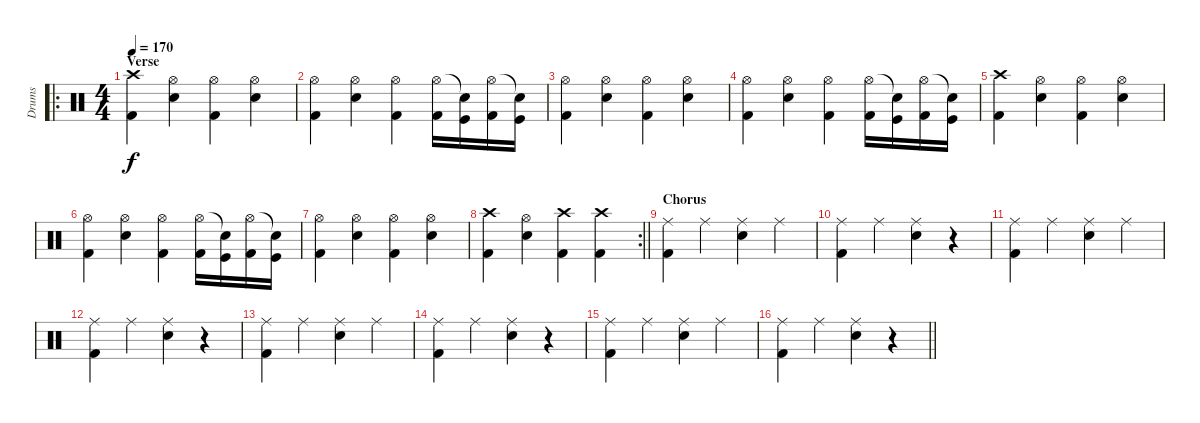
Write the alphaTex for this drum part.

\track ("Drums" "Drums") {instrument percussion}
\staff {score}
\articulation defaults
\ro
\ts (4 4)
\section ("" "Verse")
\tempo 170
\clef neutral
\ks c
("Crash high (hit)" "Kick (hit) 2").4{dy f} ("Hi-Hat (open)" "Electric Snare (hit)").4 ("Hi-Hat (open)" "Kick (hit) 2").4 ("Hi-Hat (open)" "Electric Snare (hit)").4 |
("Hi-Hat (open)" "Kick (hit) 2").4 ("Hi-Hat (open)" "Electric Snare (hit)").4 ("Hi-Hat (open)" "Kick (hit) 2").4 ("Hi-Hat (open)" "Kick (hit) 2").16 ("Snare (hit)"{t} "Kick (hit)").16 ("Hi-Hat (open)" "Kick (hit) 2").16 ("Snare (hit)"{t} "Kick (hit)").16 |
("Hi-Hat (open)" "Kick (hit) 2").4 ("Hi-Hat (open)" "Electric Snare (hit)").4 ("Hi-Hat (open)" "Kick (hit) 2").4 ("Hi-Hat (open)" "Electric Snare (hit)").4 |
("Hi-Hat (open)" "Kick (hit) 2").4 ("Hi-Hat (open)" "Electric Snare (hit)").4 ("Hi-Hat (open)" "Kick (hit) 2").4 ("Hi-Hat (open)" "Kick (hit) 2").16 ("Snare (hit)"{t} "Kick (hit)").16 ("Hi-Hat (open)" "Kick (hit) 2").16 ("Snare (hit)"{t} "Kick (hit)").16 |
("Crash high (hit)" "Kick (hit) 2").4 ("Hi-Hat (open)" "Electric Snare (hit)").4 ("Hi-Hat (open)" "Kick (hit) 2").4 ("Hi-Hat (open)" "Electric Snare (hit)").4 |
("Hi-Hat (open)" "Kick (hit) 2").4 ("Hi-Hat (open)" "Electric Snare (hit)").4 ("Hi-Hat (open)" "Kick (hit) 2").4 ("Hi-Hat (open)" "Kick (hit) 2").16 ("Snare (hit)"{t} "Kick (hit)").16 ("Hi-Hat (open)" "Kick (hit) 2").16 ("Snare (hit)"{t} "Kick (hit)").16 |
("Hi-Hat (open)" "Kick (hit) 2").4 ("Hi-Hat (open)" "Electric Snare (hit)").4 ("Hi-Hat (open)" "Kick (hit) 2").4 ("Hi-Hat (open)" "Electric Snare (hit)").4 |
\rc 2
\barLineRight lightlight
("Crash high (hit)" "Kick (hit) 2").4 ("Hi-Hat (open)" "Electric Snare (hit)").4 ("Crash high (hit)" "Kick (hit) 2").4 ("Crash high (hit)" "Kick (hit) 2").4 |
\section ("" "Chorus")
("Ride (middle)" "Kick (hit) 2").4 "Ride (middle)".4 ("Ride (middle)" "Electric Snare (hit)").4 "Ride (middle)".4 |
("Ride (middle)" "Kick (hit) 2").4 "Ride (middle)".4 ("Ride (middle)" "Electric Snare (hit)").4 r.4 |
("Ride (middle)" "Kick (hit) 2").4 "Ride (middle)".4 ("Ride (middle)" "Electric Snare (hit)").4 "Ride (middle)".4 |
("Ride (middle)" "Kick (hit) 2").4 "Ride (middle)".4 ("Ride (middle)" "Electric Snare (hit)").4 r.4 |
("Ride (middle)" "Kick (hit) 2").4 "Ride (middle)".4 ("Ride (middle)" "Electric Snare (hit)").4 "Ride (middle)".4 |
("Ride (middle)" "Kick (hit) 2").4 "Ride (middle)".4 ("Ride (middle)" "Electric Snare (hit)").4 r.4 |
("Ride (middle)" "Kick (hit) 2").4 "Ride (middle)".4 ("Ride (middle)" "Electric Snare (hit)").4 "Ride (middle)".4 |
\barLineRight lightlight
("Ride (middle)" "Kick (hit) 2").4 "Ride (middle)".4 ("Ride (middle)" "Electric Snare (hit)").4 r.4
